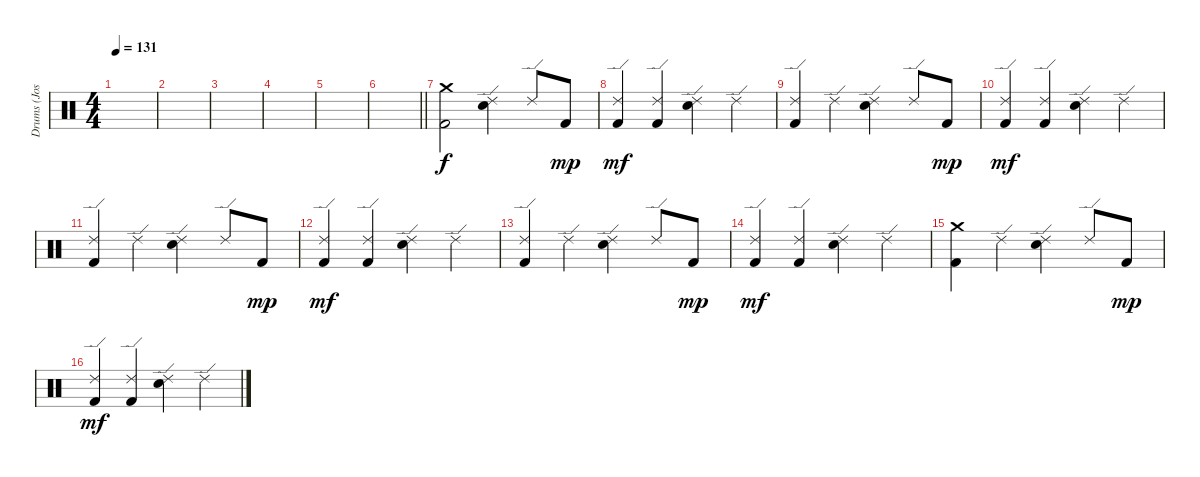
\track ("Drums (Josh Freese)" "Drums (Jos") {instrument percussion}
\staff {score}
\articulation defaults
\ts (4 4)
\tempo 131
\clef neutral
\ks c
|
|
|
|
|
\barLineRight lightlight
|
("Crash medium (hit)" "Kick (hit) 2").2 ("Ride (edge) 2" "Electric Snare (hit)").4 "Ride (edge) 2".8 "Kick (hit) 2".8{dy mp} |
("Ride (edge) 2" "Kick (hit) 2").4{dy mf} ("Ride (edge) 2" "Kick (hit) 2").4 ("Ride (edge) 2" "Electric Snare (hit)").4 "Ride (edge) 2".4 |
("Ride (edge) 2" "Kick (hit) 2").4 "Ride (edge) 2".4 ("Ride (edge) 2" "Electric Snare (hit)").4 "Ride (edge) 2".8 "Kick (hit) 2".8{dy mp} |
("Ride (edge) 2" "Kick (hit) 2").4{dy mf} ("Ride (edge) 2" "Kick (hit) 2").4 ("Ride (edge) 2" "Electric Snare (hit)").4 "Ride (edge) 2".4 |
("Ride (edge) 2" "Kick (hit) 2").4 "Ride (edge) 2".4 ("Ride (edge) 2" "Electric Snare (hit)").4 "Ride (edge) 2".8 "Kick (hit) 2".8{dy mp} |
("Ride (edge) 2" "Kick (hit) 2").4{dy mf} ("Ride (edge) 2" "Kick (hit) 2").4 ("Ride (edge) 2" "Electric Snare (hit)").4 "Ride (edge) 2".4 |
("Ride (edge) 2" "Kick (hit) 2").4 "Ride (edge) 2".4 ("Ride (edge) 2" "Electric Snare (hit)").4 "Ride (edge) 2".8 "Kick (hit) 2".8{dy mp} |
("Ride (edge) 2" "Kick (hit) 2").4{dy mf} ("Ride (edge) 2" "Kick (hit) 2").4 ("Ride (edge) 2" "Electric Snare (hit)").4 "Ride (edge) 2".4 |
("Crash medium (hit)" "Kick (hit) 2").4 "Ride (edge) 2".4 ("Ride (edge) 2" "Electric Snare (hit)").4 "Ride (edge) 2".8 "Kick (hit) 2".8{dy mp} |
("Ride (edge) 2" "Kick (hit) 2").4{dy mf} ("Ride (edge) 2" "Kick (hit) 2").4 ("Ride (edge) 2" "Electric Snare (hit)").4 "Ride (edge) 2".4
